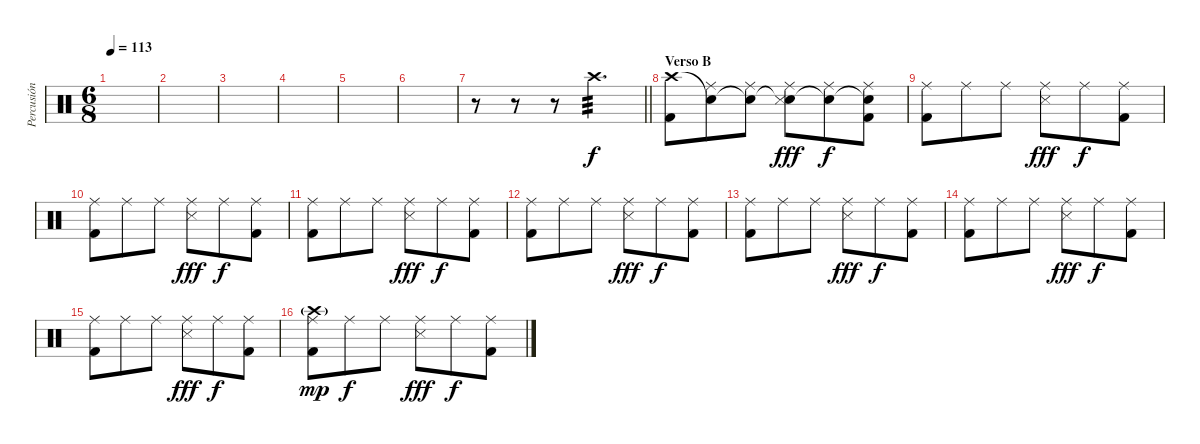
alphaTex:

\track ("Percusión" "Percusión") {instrument percussion}
\staff {score}
\articulation defaults
\ts (6 8)
\tempo 113
\clef neutral
\ks c
|
|
|
|
|
|
\barLineRight lightlight
r.8 r.8 r.8{volume 0} "Crash high (hit)".4{d tp 3 volume 13} |
\section ("" "Verso B")
("Crash high (hit)" "Kick (hit) 2").8 ("Snare (hit)"{t} "Ride (middle)").8 ("Snare (hit)"{t} "Ride (middle)").8 ("Snare (hit)"{t} "Ride (middle)" "Snare (side stick) 3").8{dy fff} ("Snare (hit)"{t} "Ride (middle)").8{dy f} ("Snare (hit)"{t} "Ride (middle)" "Kick (hit) 2").8 |
("Ride (middle)" "Kick (hit) 2").8 "Ride (middle)".8 "Ride (middle)".8 ("Ride (middle)" "Snare (side stick) 3").8{dy fff} "Ride (middle)".8{dy f} ("Ride (middle)" "Kick (hit) 2").8 |
("Ride (middle)" "Kick (hit) 2").8 "Ride (middle)".8 "Ride (middle)".8 ("Ride (middle)" "Snare (side stick) 3").8{dy fff} "Ride (middle)".8{dy f} ("Ride (middle)" "Kick (hit) 2").8 |
("Ride (middle)" "Kick (hit) 2").8 "Ride (middle)".8 "Ride (middle)".8 ("Ride (middle)" "Snare (side stick) 3").8{dy fff} "Ride (middle)".8{dy f} ("Ride (middle)" "Kick (hit) 2").8 |
("Ride (middle)" "Kick (hit) 2").8 "Ride (middle)".8 "Ride (middle)".8 ("Ride (middle)" "Snare (side stick) 3").8{dy fff} "Ride (middle)".8{dy f} ("Ride (middle)" "Kick (hit) 2").8 |
("Ride (middle)" "Kick (hit) 2").8 "Ride (middle)".8 "Ride (middle)".8 ("Ride (middle)" "Snare (side stick) 3").8{dy fff} "Ride (middle)".8{dy f} ("Ride (middle)" "Kick (hit) 2").8 |
("Ride (middle)" "Kick (hit) 2").8 "Ride (middle)".8 "Ride (middle)".8 ("Ride (middle)" "Snare (side stick) 3").8{dy fff} "Ride (middle)".8{dy f} ("Ride (middle)" "Kick (hit) 2").8 |
("Ride (middle)" "Kick (hit) 2").8 "Ride (middle)".8 "Ride (middle)".8 ("Ride (middle)" "Snare (side stick) 3").8{dy fff} "Ride (middle)".8{dy f} ("Ride (middle)" "Kick (hit) 2").8 |
("Crash high (hit)"{g} "Ride (middle)" "Kick (hit) 2").8{dy mp} "Ride (middle)".8{dy f} "Ride (middle)".8 ("Ride (middle)" "Snare (side stick) 3").8{dy fff} "Ride (middle)".8{dy f} ("Ride (middle)" "Kick (hit) 2").8
